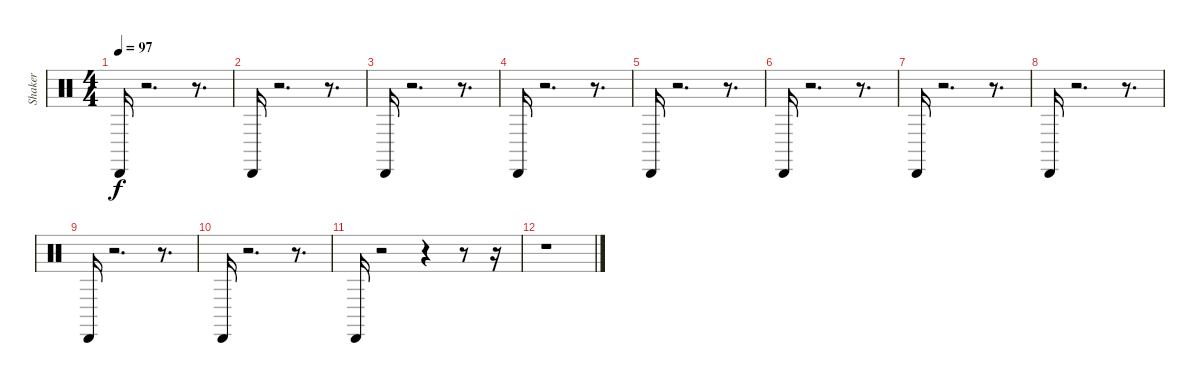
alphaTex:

\track ("Shaker" "Shaker") {instrument percussion}
\staff {score}
\articulation defaults
\ts (4 4)
\tempo 97
\clef neutral
\ks c "Cabasa (hit)".16{dy f}
r.2{d} r.8{d} |
"Cabasa (hit)".16 r.2{d} r.8{d} |
"Cabasa (hit)".16 r.2{d} r.8{d} |
"Cabasa (hit)".16 r.2{d} r.8{d} |
"Cabasa (hit)".16 r.2{d} r.8{d} |
"Cabasa (hit)".16 r.2{d} r.8{d} |
"Cabasa (hit)".16 r.2{d} r.8{d} |
"Cabasa (hit)".16 r.2{d} r.8{d} |
"Cabasa (hit)".16 r.2{d} r.8{d} |
"Cabasa (hit)".16 r.2{d} r.8{d} |
"Cabasa (hit)".16 r.2 r.4 r.8 r.16 |
r.1
